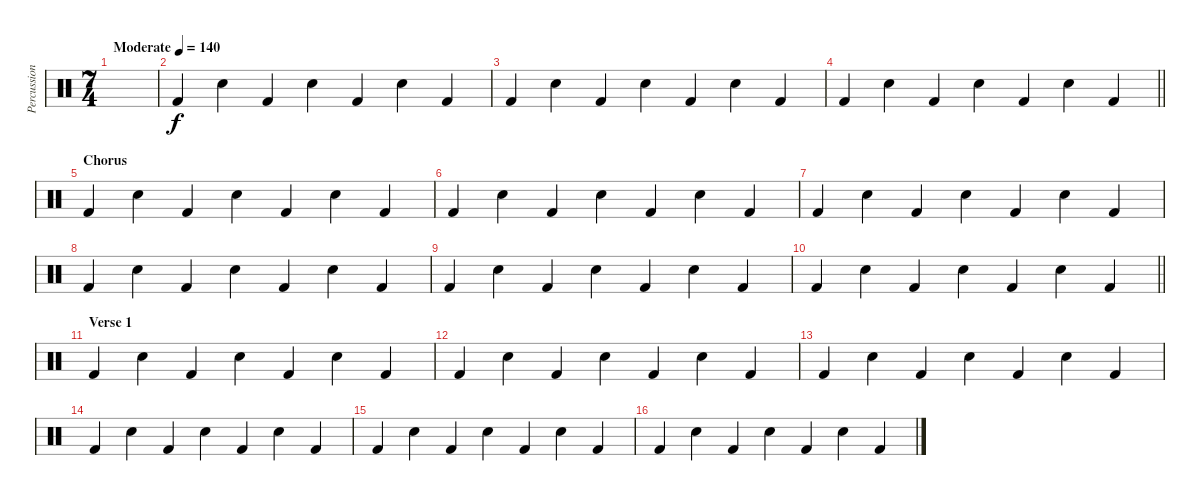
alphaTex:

\track ("Percussion" "Percussion") {instrument percussion}
\staff {score}
\articulation defaults
\ts (7 4)
\tempo (140 "Moderate")
\clef neutral
\ks c
|
"Kick (hit) 2".4 "Snare (hit) 2".4 "Kick (hit) 2".4 "Snare (hit) 2".4 "Kick (hit) 2".4 "Snare (hit) 2".4 "Kick (hit) 2".4 |
"Kick (hit) 2".4 "Snare (hit) 2".4 "Kick (hit) 2".4 "Snare (hit) 2".4 "Kick (hit) 2".4 "Snare (hit) 2".4 "Kick (hit) 2".4 |
\barLineRight lightlight "Kick (hit) 2".4 "Snare (hit) 2".4 "Kick (hit) 2".4 "Snare (hit) 2".4 "Kick (hit) 2".4 "Snare (hit) 2".4 "Kick (hit) 2".4
|
\section ("" "Chorus")
"Kick (hit) 2".4 "Snare (hit) 2".4 "Kick (hit) 2".4 "Snare (hit) 2".4 "Kick (hit) 2".4 "Snare (hit) 2".4 "Kick (hit) 2".4 |
"Kick (hit) 2".4 "Snare (hit) 2".4 "Kick (hit) 2".4 "Snare (hit) 2".4 "Kick (hit) 2".4 "Snare (hit) 2".4 "Kick (hit) 2".4 |
"Kick (hit) 2".4 "Snare (hit) 2".4 "Kick (hit) 2".4 "Snare (hit) 2".4 "Kick (hit) 2".4 "Snare (hit) 2".4 "Kick (hit) 2".4 |
"Kick (hit) 2".4 "Snare (hit) 2".4 "Kick (hit) 2".4 "Snare (hit) 2".4 "Kick (hit) 2".4 "Snare (hit) 2".4 "Kick (hit) 2".4 |
"Kick (hit) 2".4 "Snare (hit) 2".4 "Kick (hit) 2".4 "Snare (hit) 2".4 "Kick (hit) 2".4 "Snare (hit) 2".4 "Kick (hit) 2".4 |
\barLineRight lightlight "Kick (hit) 2".4 "Snare (hit) 2".4 "Kick (hit) 2".4 "Snare (hit) 2".4 "Kick (hit) 2".4 "Snare (hit) 2".4 "Kick (hit) 2".4
|
\section ("" "Verse 1")
"Kick (hit) 2".4 "Snare (hit) 2".4 "Kick (hit) 2".4 "Snare (hit) 2".4 "Kick (hit) 2".4 "Snare (hit) 2".4 "Kick (hit) 2".4 |
"Kick (hit) 2".4 "Snare (hit) 2".4 "Kick (hit) 2".4 "Snare (hit) 2".4 "Kick (hit) 2".4 "Snare (hit) 2".4 "Kick (hit) 2".4 |
"Kick (hit) 2".4 "Snare (hit) 2".4 "Kick (hit) 2".4 "Snare (hit) 2".4 "Kick (hit) 2".4 "Snare (hit) 2".4 "Kick (hit) 2".4 |
"Kick (hit) 2".4 "Snare (hit) 2".4 "Kick (hit) 2".4 "Snare (hit) 2".4 "Kick (hit) 2".4 "Snare (hit) 2".4 "Kick (hit) 2".4 |
"Kick (hit) 2".4 "Snare (hit) 2".4 "Kick (hit) 2".4 "Snare (hit) 2".4 "Kick (hit) 2".4 "Snare (hit) 2".4 "Kick (hit) 2".4 |
"Kick (hit) 2".4 "Snare (hit) 2".4 "Kick (hit) 2".4 "Snare (hit) 2".4 "Kick (hit) 2".4 "Snare (hit) 2".4 "Kick (hit) 2".4
